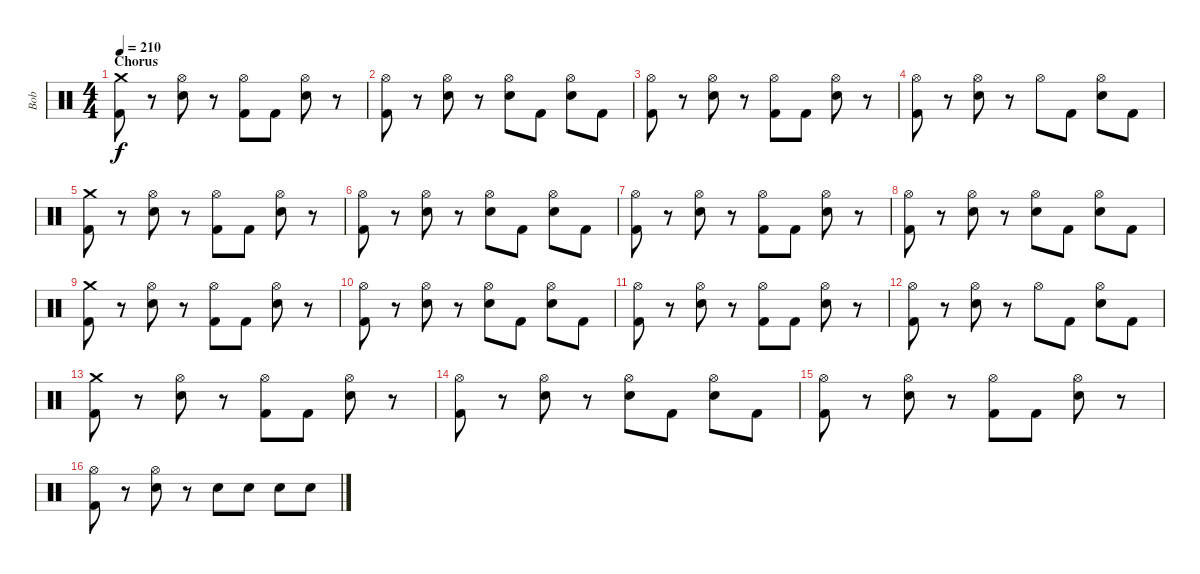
\track ("Bob" "Bob") {instrument percussion}
\staff {score}
\articulation defaults
\ts (4 4)
\section ("" "Chorus")
\tempo 210
\clef neutral
\ks c
("Crash medium (hit)" "Kick (hit) 2").8{dy f} r.8 ("Hi-Hat (open)" "Electric Snare (hit)").8 r.8 ("Hi-Hat (open)" "Kick (hit) 2").8 "Kick (hit) 2".8 ("Hi-Hat (open)" "Electric Snare (hit)").8 r.8 |
("Hi-Hat (open)" "Kick (hit) 2").8 r.8 ("Hi-Hat (open)" "Electric Snare (hit)").8 r.8 ("Hi-Hat (open)" "Electric Snare (hit)").8 "Kick (hit) 2".8 ("Hi-Hat (open)" "Electric Snare (hit)").8 "Kick (hit) 2".8 |
("Hi-Hat (open)" "Kick (hit) 2").8 r.8 ("Hi-Hat (open)" "Electric Snare (hit)").8 r.8 ("Hi-Hat (open)" "Kick (hit) 2").8 "Kick (hit) 2".8 ("Hi-Hat (open)" "Electric Snare (hit)").8 r.8 |
("Hi-Hat (open)" "Kick (hit) 2").8 r.8 ("Hi-Hat (open)" "Electric Snare (hit)").8 r.8 "Hi-Hat (open)".8 "Kick (hit) 2".8 ("Hi-Hat (open)" "Electric Snare (hit)").8 "Kick (hit) 2".8 |
("Crash medium (hit)" "Kick (hit) 2").8 r.8 ("Hi-Hat (open)" "Electric Snare (hit)").8 r.8 ("Hi-Hat (open)" "Kick (hit) 2").8 "Kick (hit) 2".8 ("Hi-Hat (open)" "Electric Snare (hit)").8 r.8 |
("Hi-Hat (open)" "Kick (hit) 2").8 r.8 ("Hi-Hat (open)" "Electric Snare (hit)").8 r.8 ("Hi-Hat (open)" "Electric Snare (hit)").8 "Kick (hit) 2".8 ("Hi-Hat (open)" "Electric Snare (hit)").8 "Kick (hit) 2".8 |
("Hi-Hat (open)" "Kick (hit) 2").8 r.8 ("Hi-Hat (open)" "Electric Snare (hit)").8 r.8 ("Hi-Hat (open)" "Kick (hit) 2").8 "Kick (hit) 2".8 ("Hi-Hat (open)" "Electric Snare (hit)").8 r.8 |
("Hi-Hat (open)" "Kick (hit) 2").8 r.8 ("Hi-Hat (open)" "Electric Snare (hit)").8 r.8 ("Hi-Hat (open)" "Electric Snare (hit)").8 "Kick (hit) 2".8 ("Hi-Hat (open)" "Electric Snare (hit)").8 "Kick (hit) 2".8 |
("Crash medium (hit)" "Kick (hit) 2").8 r.8 ("Hi-Hat (open)" "Electric Snare (hit)").8 r.8 ("Hi-Hat (open)" "Kick (hit) 2").8 "Kick (hit) 2".8 ("Hi-Hat (open)" "Electric Snare (hit)").8 r.8 |
("Hi-Hat (open)" "Kick (hit) 2").8 r.8 ("Hi-Hat (open)" "Electric Snare (hit)").8 r.8 ("Hi-Hat (open)" "Electric Snare (hit)").8 "Kick (hit) 2".8 ("Hi-Hat (open)" "Electric Snare (hit)").8 "Kick (hit) 2".8 |
("Hi-Hat (open)" "Kick (hit) 2").8 r.8 ("Hi-Hat (open)" "Electric Snare (hit)").8 r.8 ("Hi-Hat (open)" "Kick (hit) 2").8 "Kick (hit) 2".8 ("Hi-Hat (open)" "Electric Snare (hit)").8 r.8 |
("Hi-Hat (open)" "Kick (hit) 2").8 r.8 ("Hi-Hat (open)" "Electric Snare (hit)").8 r.8 "Hi-Hat (open)".8 "Kick (hit) 2".8 ("Hi-Hat (open)" "Electric Snare (hit)").8 "Kick (hit) 2".8 |
("Crash medium (hit)" "Kick (hit) 2").8 r.8 ("Hi-Hat (open)" "Electric Snare (hit)").8 r.8 ("Hi-Hat (open)" "Kick (hit) 2").8 "Kick (hit) 2".8 ("Hi-Hat (open)" "Electric Snare (hit)").8 r.8 |
("Hi-Hat (open)" "Kick (hit) 2").8 r.8 ("Hi-Hat (open)" "Electric Snare (hit)").8 r.8 ("Hi-Hat (open)" "Electric Snare (hit)").8 "Kick (hit) 2".8 ("Hi-Hat (open)" "Electric Snare (hit)").8 "Kick (hit) 2".8 |
("Hi-Hat (open)" "Kick (hit) 2").8 r.8 ("Hi-Hat (open)" "Electric Snare (hit)").8 r.8 ("Hi-Hat (open)" "Kick (hit) 2").8 "Kick (hit) 2".8 ("Hi-Hat (open)" "Electric Snare (hit)").8 r.8 |
("Hi-Hat (open)" "Kick (hit) 2").8 r.8 ("Hi-Hat (open)" "Electric Snare (hit)").8 r.8 "Electric Snare (hit)".8 "Electric Snare (hit)".8 "Electric Snare (hit)".8 "Electric Snare (hit)".8
